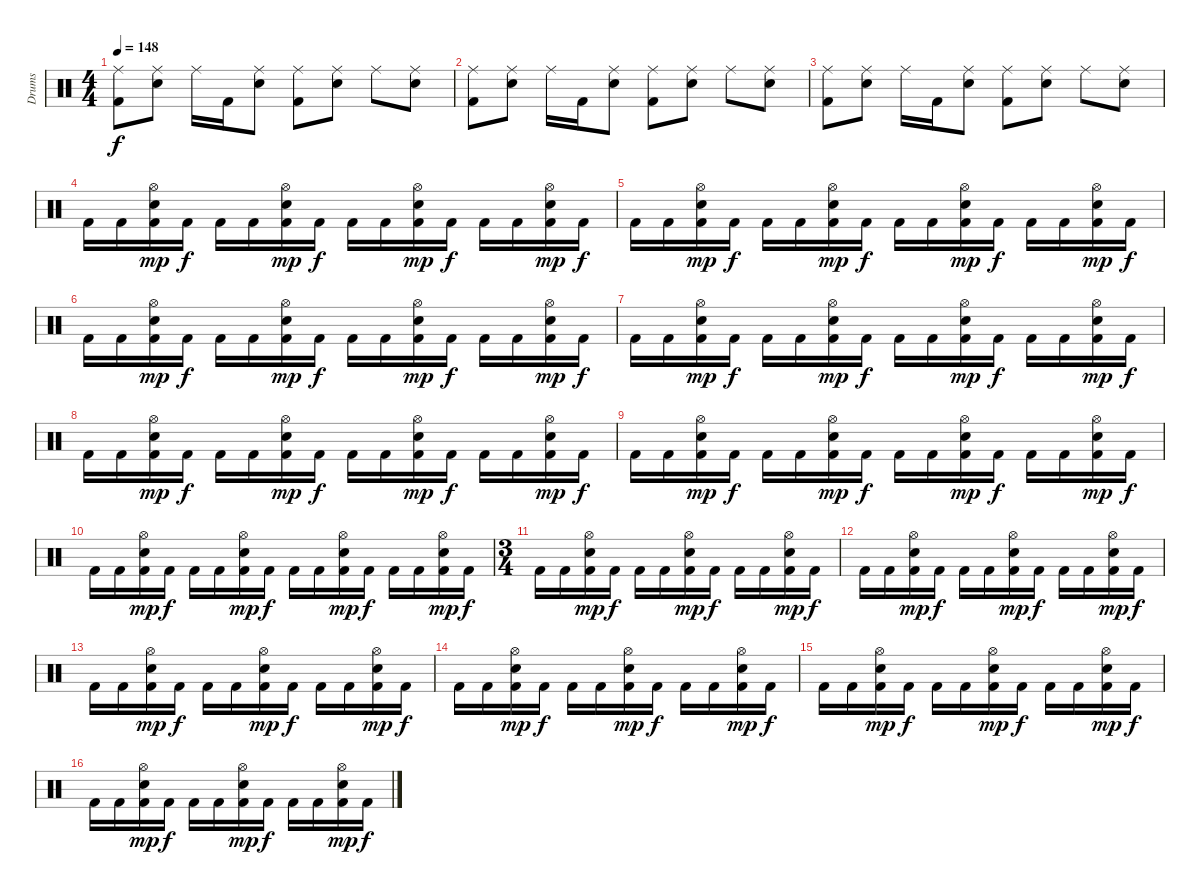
\track ("Drums" "Drums") {instrument percussion}
\staff
\articulation defaults
\ts (4 4)
\tempo 148
\clef neutral
\ks c
("Ride (middle)" "Kick (hit) 2").8{dy f} ("Ride (middle)" "Electric Snare (hit)").8 "Ride (middle)".16 "Kick (hit) 2".16 ("Ride (middle)" "Electric Snare (hit)").8 ("Ride (middle)" "Kick (hit) 2").8 ("Ride (middle)" "Electric Snare (hit)").8 "Ride (middle)".8 ("Ride (middle)" "Electric Snare (hit)").8 |
("Ride (middle)" "Kick (hit) 2").8 ("Ride (middle)" "Electric Snare (hit)").8 "Ride (middle)".16 "Kick (hit) 2".16 ("Ride (middle)" "Electric Snare (hit)").8 ("Ride (middle)" "Kick (hit) 2").8 ("Ride (middle)" "Electric Snare (hit)").8 "Ride (middle)".8 ("Ride (middle)" "Electric Snare (hit)").8 |
("Ride (middle)" "Kick (hit) 2").8 ("Ride (middle)" "Electric Snare (hit)").8 "Ride (middle)".16 "Kick (hit) 2".16 ("Ride (middle)" "Electric Snare (hit)").8 ("Ride (middle)" "Kick (hit) 2").8 ("Ride (middle)" "Electric Snare (hit)").8 "Ride (middle)".8 ("Ride (middle)" "Electric Snare (hit)").8 |
"Kick (hit) 2".16 "Kick (hit) 2".16 ("Hi-Hat (open)" "Kick (hit) 2" "Electric Snare (hit)").16{dy mp} "Kick (hit) 2".16{dy f} "Kick (hit) 2".16 "Kick (hit) 2".16 ("Hi-Hat (open)" "Kick (hit) 2" "Electric Snare (hit)").16{dy mp} "Kick (hit) 2".16{dy f} "Kick (hit) 2".16 "Kick (hit) 2".16 ("Hi-Hat (open)" "Kick (hit) 2" "Electric Snare (hit)").16{dy mp} "Kick (hit) 2".16{dy f} "Kick (hit) 2".16 "Kick (hit) 2".16 ("Hi-Hat (open)" "Kick (hit) 2" "Electric Snare (hit)").16{dy mp} "Kick (hit) 2".16{dy f} |
"Kick (hit) 2".16 "Kick (hit) 2".16 ("Hi-Hat (open)" "Kick (hit) 2" "Electric Snare (hit)").16{dy mp} "Kick (hit) 2".16{dy f} "Kick (hit) 2".16 "Kick (hit) 2".16 ("Hi-Hat (open)" "Kick (hit) 2" "Electric Snare (hit)").16{dy mp} "Kick (hit) 2".16{dy f} "Kick (hit) 2".16 "Kick (hit) 2".16 ("Hi-Hat (open)" "Kick (hit) 2" "Electric Snare (hit)").16{dy mp} "Kick (hit) 2".16{dy f} "Kick (hit) 2".16 "Kick (hit) 2".16 ("Hi-Hat (open)" "Kick (hit) 2" "Electric Snare (hit)").16{dy mp} "Kick (hit) 2".16{dy f} |
"Kick (hit) 2".16 "Kick (hit) 2".16 ("Hi-Hat (open)" "Kick (hit) 2" "Electric Snare (hit)").16{dy mp} "Kick (hit) 2".16{dy f} "Kick (hit) 2".16 "Kick (hit) 2".16 ("Hi-Hat (open)" "Kick (hit) 2" "Electric Snare (hit)").16{dy mp} "Kick (hit) 2".16{dy f} "Kick (hit) 2".16 "Kick (hit) 2".16 ("Hi-Hat (open)" "Kick (hit) 2" "Electric Snare (hit)").16{dy mp} "Kick (hit) 2".16{dy f} "Kick (hit) 2".16 "Kick (hit) 2".16 ("Hi-Hat (open)" "Kick (hit) 2" "Electric Snare (hit)").16{dy mp} "Kick (hit) 2".16{dy f} |
"Kick (hit) 2".16 "Kick (hit) 2".16 ("Hi-Hat (open)" "Kick (hit) 2" "Electric Snare (hit)").16{dy mp} "Kick (hit) 2".16{dy f} "Kick (hit) 2".16 "Kick (hit) 2".16 ("Hi-Hat (open)" "Kick (hit) 2" "Electric Snare (hit)").16{dy mp} "Kick (hit) 2".16{dy f} "Kick (hit) 2".16 "Kick (hit) 2".16 ("Hi-Hat (open)" "Kick (hit) 2" "Electric Snare (hit)").16{dy mp} "Kick (hit) 2".16{dy f} "Kick (hit) 2".16 "Kick (hit) 2".16 ("Hi-Hat (open)" "Kick (hit) 2" "Electric Snare (hit)").16{dy mp} "Kick (hit) 2".16{dy f} |
"Kick (hit) 2".16 "Kick (hit) 2".16 ("Hi-Hat (open)" "Kick (hit) 2" "Electric Snare (hit)").16{dy mp} "Kick (hit) 2".16{dy f} "Kick (hit) 2".16 "Kick (hit) 2".16 ("Hi-Hat (open)" "Kick (hit) 2" "Electric Snare (hit)").16{dy mp} "Kick (hit) 2".16{dy f} "Kick (hit) 2".16 "Kick (hit) 2".16 ("Hi-Hat (open)" "Kick (hit) 2" "Electric Snare (hit)").16{dy mp} "Kick (hit) 2".16{dy f} "Kick (hit) 2".16 "Kick (hit) 2".16 ("Hi-Hat (open)" "Kick (hit) 2" "Electric Snare (hit)").16{dy mp} "Kick (hit) 2".16{dy f} |
"Kick (hit) 2".16 "Kick (hit) 2".16 ("Hi-Hat (open)" "Kick (hit) 2" "Electric Snare (hit)").16{dy mp} "Kick (hit) 2".16{dy f} "Kick (hit) 2".16 "Kick (hit) 2".16 ("Hi-Hat (open)" "Kick (hit) 2" "Electric Snare (hit)").16{dy mp} "Kick (hit) 2".16{dy f} "Kick (hit) 2".16 "Kick (hit) 2".16 ("Hi-Hat (open)" "Kick (hit) 2" "Electric Snare (hit)").16{dy mp} "Kick (hit) 2".16{dy f} "Kick (hit) 2".16 "Kick (hit) 2".16 ("Hi-Hat (open)" "Kick (hit) 2" "Electric Snare (hit)").16{dy mp} "Kick (hit) 2".16{dy f} |
"Kick (hit) 2".16 "Kick (hit) 2".16 ("Hi-Hat (open)" "Kick (hit) 2" "Electric Snare (hit)").16{dy mp} "Kick (hit) 2".16{dy f} "Kick (hit) 2".16 "Kick (hit) 2".16 ("Hi-Hat (open)" "Kick (hit) 2" "Electric Snare (hit)").16{dy mp} "Kick (hit) 2".16{dy f} "Kick (hit) 2".16 "Kick (hit) 2".16 ("Hi-Hat (open)" "Kick (hit) 2" "Electric Snare (hit)").16{dy mp} "Kick (hit) 2".16{dy f} "Kick (hit) 2".16 "Kick (hit) 2".16 ("Hi-Hat (open)" "Kick (hit) 2" "Electric Snare (hit)").16{dy mp} "Kick (hit) 2".16{dy f} |
\ts (3 4)
"Kick (hit) 2".16 "Kick (hit) 2".16 ("Hi-Hat (open)" "Kick (hit) 2" "Electric Snare (hit)").16{dy mp} "Kick (hit) 2".16{dy f} "Kick (hit) 2".16 "Kick (hit) 2".16 ("Hi-Hat (open)" "Kick (hit) 2" "Electric Snare (hit)").16{dy mp} "Kick (hit) 2".16{dy f} "Kick (hit) 2".16 "Kick (hit) 2".16 ("Hi-Hat (open)" "Kick (hit) 2" "Electric Snare (hit)").16{dy mp} "Kick (hit) 2".16{dy f} |
"Kick (hit) 2".16 "Kick (hit) 2".16 ("Hi-Hat (open)" "Kick (hit) 2" "Electric Snare (hit)").16{dy mp} "Kick (hit) 2".16{dy f} "Kick (hit) 2".16 "Kick (hit) 2".16 ("Hi-Hat (open)" "Kick (hit) 2" "Electric Snare (hit)").16{dy mp} "Kick (hit) 2".16{dy f} "Kick (hit) 2".16 "Kick (hit) 2".16 ("Hi-Hat (open)" "Kick (hit) 2" "Electric Snare (hit)").16{dy mp} "Kick (hit) 2".16{dy f} |
"Kick (hit) 2".16 "Kick (hit) 2".16 ("Hi-Hat (open)" "Kick (hit) 2" "Electric Snare (hit)").16{dy mp} "Kick (hit) 2".16{dy f} "Kick (hit) 2".16 "Kick (hit) 2".16 ("Hi-Hat (open)" "Kick (hit) 2" "Electric Snare (hit)").16{dy mp} "Kick (hit) 2".16{dy f} "Kick (hit) 2".16 "Kick (hit) 2".16 ("Hi-Hat (open)" "Kick (hit) 2" "Electric Snare (hit)").16{dy mp} "Kick (hit) 2".16{dy f} |
"Kick (hit) 2".16 "Kick (hit) 2".16 ("Hi-Hat (open)" "Kick (hit) 2" "Electric Snare (hit)").16{dy mp} "Kick (hit) 2".16{dy f} "Kick (hit) 2".16 "Kick (hit) 2".16 ("Hi-Hat (open)" "Kick (hit) 2" "Electric Snare (hit)").16{dy mp} "Kick (hit) 2".16{dy f} "Kick (hit) 2".16 "Kick (hit) 2".16 ("Hi-Hat (open)" "Kick (hit) 2" "Electric Snare (hit)").16{dy mp} "Kick (hit) 2".16{dy f} |
"Kick (hit) 2".16 "Kick (hit) 2".16 ("Hi-Hat (open)" "Kick (hit) 2" "Electric Snare (hit)").16{dy mp} "Kick (hit) 2".16{dy f} "Kick (hit) 2".16 "Kick (hit) 2".16 ("Hi-Hat (open)" "Kick (hit) 2" "Electric Snare (hit)").16{dy mp} "Kick (hit) 2".16{dy f} "Kick (hit) 2".16 "Kick (hit) 2".16 ("Hi-Hat (open)" "Kick (hit) 2" "Electric Snare (hit)").16{dy mp} "Kick (hit) 2".16{dy f} |
"Kick (hit) 2".16 "Kick (hit) 2".16 ("Hi-Hat (open)" "Kick (hit) 2" "Electric Snare (hit)").16{dy mp} "Kick (hit) 2".16{dy f} "Kick (hit) 2".16 "Kick (hit) 2".16 ("Hi-Hat (open)" "Kick (hit) 2" "Electric Snare (hit)").16{dy mp} "Kick (hit) 2".16{dy f} "Kick (hit) 2".16 "Kick (hit) 2".16 ("Hi-Hat (open)" "Kick (hit) 2" "Electric Snare (hit)").16{dy mp} "Kick (hit) 2".16{dy f}
